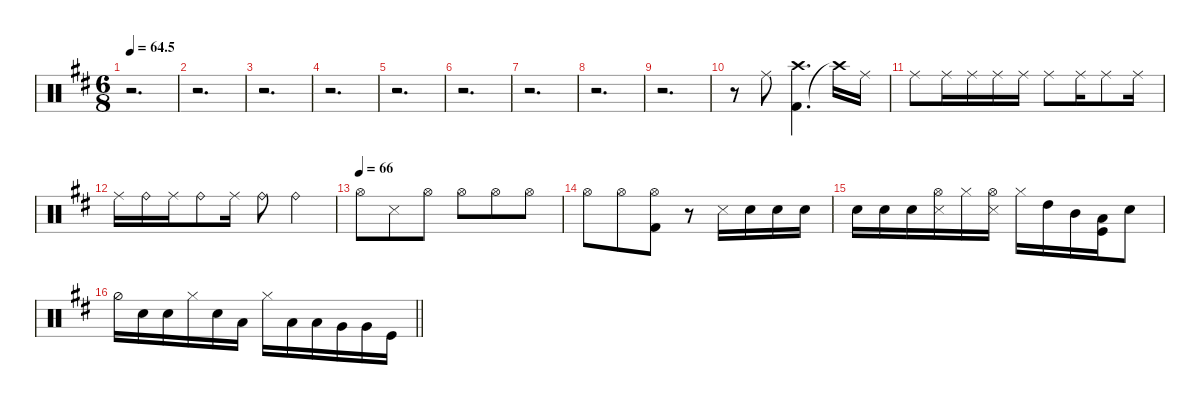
\defaultSystemsLayout 4
\hideDynamics
\bracketExtendMode groupsimilarinstruments
\singleTrackTrackNamePolicy hidden
\multiTrackTrackNamePolicy hidden
\firstSystemTrackNameMode fullname
\firstSystemTrackNameOrientation horizontal
\otherSystemsTrackNameOrientation horizontal
\track ("Drumkit" "drm.") {defaultSystemsLayout 8 mute instrument percussion}
\staff {score}
\articulation defaults
\ts (6 8)
\beaming (8 3 3)
\tempo
64.5
\accidentals auto
\clef neutral
\ottava regular
\simile none
\ks bminor
r.2{d dy mf beam Down} |
r.2{d beam Down} |
r.2{d beam Down} |
r.2{d beam Down} |
r.2{d beam Down} |
r.2{d beam Down} |
r.2{d beam Down} |
r.2{d beam Down} |
r.2{d beam Down} |
r.8{beam Down} "Ride (middle)"{acc forcenatural}.8{beam Down} ("Kick (hit) 2"{acc forcenatural} "Crash high (hit)"{acc forcenatural}).4{d beam Down} "Crash high (hit)"{t acc forcenatural}.16{beam Down} "Ride (middle)"{acc forcenatural}.16{beam Down} |
"Ride (middle)"{acc forcenatural}.8{beam Down} "Ride (middle)"{acc forcenatural}.16{beam Down} "Ride (middle)"{acc forcenatural}.16{beam Down} "Ride (middle)"{acc forcenatural}.16{beam Down} "Ride (middle)"{acc forcenatural}.16{beam Down} "Ride (middle)"{acc forcenatural}.8{beam Down} "Ride (middle)"{acc forcenatural}.16{beam Down} "Ride (middle)"{acc forcenatural}.8{beam Down} "Ride (middle)"{acc forcenatural}.16{beam Down} |
"Ride (middle)"{acc forcenatural}.16{beam Down} "Ride (bell)"{acc forcenatural}.16{beam Down} "Ride (middle)"{acc forcenatural}.16{beam Down} "Ride (bell)"{acc forcenatural}.8{beam Down} "Ride (middle)"{acc forcenatural}.16{beam Down} "Ride (bell)"{acc forcenatural}.8{beam Down} "Ride (bell)"{acc forcenatural}.4{beam Down} |
\tempo (66)
"Hi-Hat (open)"{acc forcenatural}.8{beam Down} "Snare (side stick) 3"{acc forcenatural}.8{beam Down} "Hi-Hat (open)"{acc forcenatural}.8{beam Down} "Hi-Hat (open)"{acc forcenatural}.8{beam Down} "Hi-Hat (open)"{acc forcenatural}.8{beam Down} "Hi-Hat (open)"{acc forcenatural}.8{beam Down} |
"Hi-Hat (open)"{acc forcenatural}.8{beam Down} "Hi-Hat (open)"{acc forcenatural}.8{beam Down} ("Hi-Hat (open)"{acc forcenatural} "Kick (hit) 2"{acc forcenatural}).8{beam Down} r.8{beam Down} "Snare (side stick) 3"{acc forcenatural}.16{beam Down} "Snare (hit) 2"{acc forcenatural}.16{beam Down} "Snare (hit) 2"{acc forcenatural}.16{beam Down} "Snare (hit) 2"{acc forcenatural}.16{beam Down} |
"Snare (hit) 2"{acc forcenatural}.16{beam Down} "Snare (hit) 2"{acc forcenatural}.16{beam Down} "Snare (hit) 2"{acc forcenatural}.16{beam Down} ("Hi-Hat (open)"{acc forcenatural} "Snare (side stick) 3"{acc forcenatural}).16{beam Down} "Hi-Hat (closed)"{acc forcenatural}.16{beam Down} ("Snare (side stick) 3"{acc forcenatural} "Hi-Hat (open)"{acc forcenatural}).16{beam Down} "Hi-Hat (closed)"{acc forcenatural}.16{beam Down} "High Tom (hit)"{acc forcenatural}.16{beam Down} "Mid Tom (hit)"{acc forcenatural}.16{beam Down} ("Low Tom (hit)"{acc forcenatural} "Kick (hit)"{acc forcenatural}).16{beam Down} "Snare (hit) 2"{acc forcenatural}.8{beam Down} |
\barLineRight lightlight "Hi-Hat (half)"{acc forcenatural}.16{beam Down} "Snare (hit) 2"{acc forcenatural}.16{beam Down} "Snare (hit) 2"{acc forcenatural}.16{beam Down} "Hi-Hat (closed)"{acc forcenatural}.16{beam Down} "Snare (hit) 2"{acc forcenatural}.16{beam Down} "Low Tom (hit)"{acc forcenatural}.16{beam Down} "Hi-Hat (closed)"{acc forcenatural}.16{beam Down} "Low Tom (hit)"{acc forcenatural}.16{beam Down} "Low Tom (hit)"{acc forcenatural}.16{beam Down} "Very Low Tom (hit)"{acc forcenatural}.16{beam Down} "Very Low Tom (hit)"{acc forcenatural}.16{beam Down} "Kick (hit)"{acc forcenatural}.16{beam Down}
